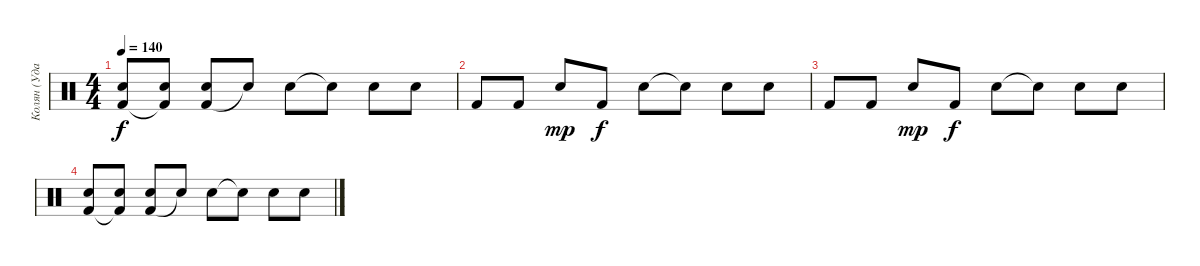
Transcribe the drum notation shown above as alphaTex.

\track ("Колян (Ударные)" "Колян (Уда") {instrument percussion}
\staff
\articulation defaults
\ts (4 4)
\tempo 140
\clef neutral
\ks c
("Kick (hit) 2" "Snare (hit) 2").8{dy f} ("Kick (hit) 2"{t} "Snare (hit) 2").8 ("Kick (hit) 2" "Snare (hit) 2").8 "Snare (hit)"{t}.8 "Snare (hit) 2".8 "Snare (hit)"{t}.8 "Snare (hit) 2".8 "Snare (hit) 2".8 |
"Kick (hit) 2".8 "Kick (hit) 2".8 "Snare (hit) 2".8{dy mp} "Kick (hit) 2".8{dy f} "Snare (hit) 2".8 "Snare (hit)"{t}.8 "Snare (hit) 2".8 "Snare (hit) 2".8 |
"Kick (hit) 2".8 "Kick (hit) 2".8 "Snare (hit) 2".8{dy mp} "Kick (hit) 2".8{dy f} "Snare (hit) 2".8 "Snare (hit)"{t}.8 "Snare (hit) 2".8 "Snare (hit) 2".8 |
("Kick (hit) 2" "Snare (hit) 2").8 ("Kick (hit) 2"{t} "Snare (hit) 2").8 ("Kick (hit) 2" "Snare (hit) 2").8 "Snare (hit)"{t}.8 "Snare (hit) 2".8 "Snare (hit)"{t}.8 "Snare (hit) 2".8 "Snare (hit) 2".8
